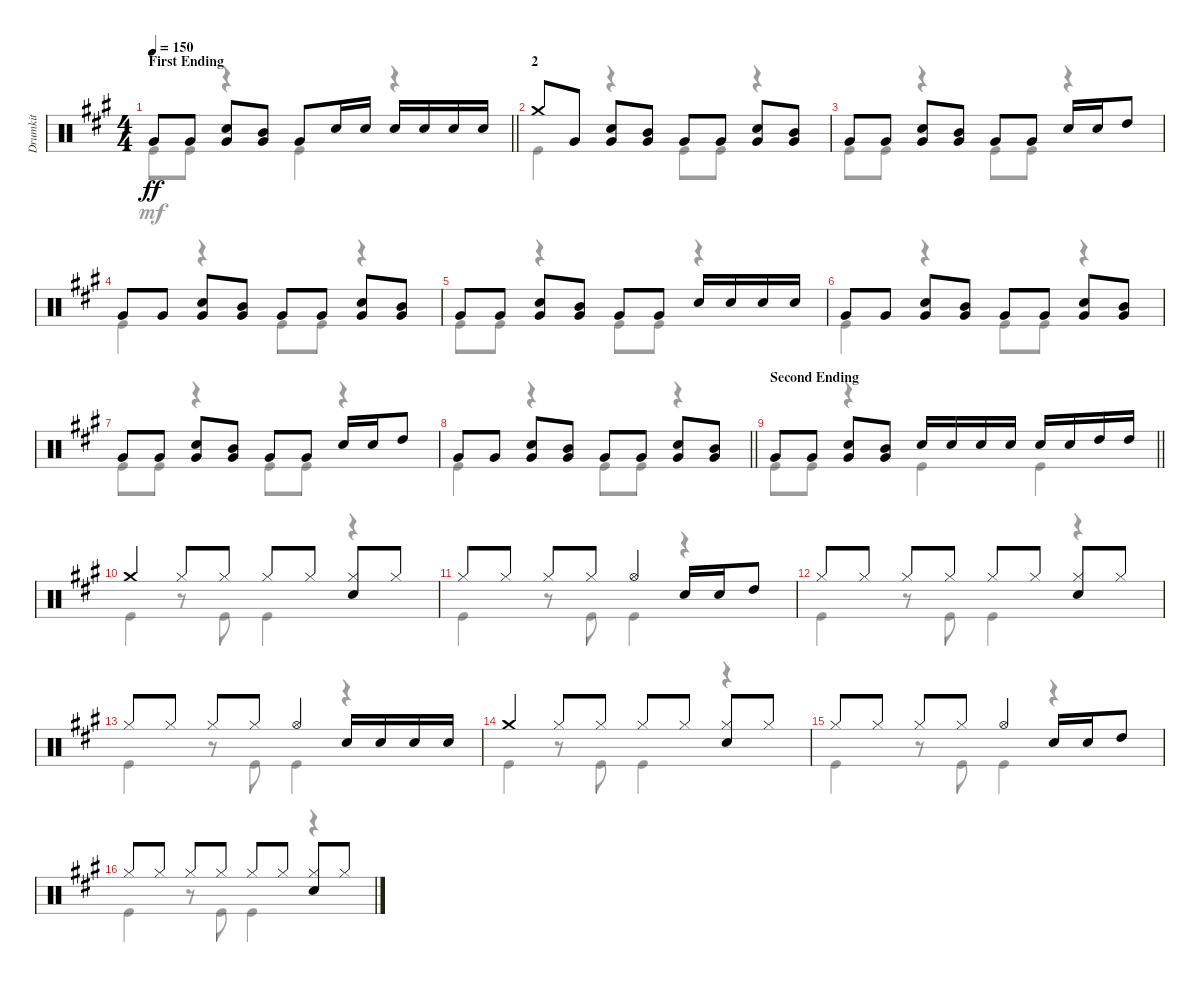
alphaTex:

\track ("Drumkit" "Drumkit") {instrument percussion}
\staff {score}
\articulation defaults
\voice
\ts (4 4)
\section ("" "First Ending")
\tempo 150
\clef neutral
\barLineRight lightlight
\ks a "Very Low Tom (hit)".8{dy ff} "Very Low Tom (hit)".8
("Very Low Tom (hit)" "Snare (hit) 2").8 ("Very Low Tom (hit)" "Mid Tom (hit)").8 "Very Low Tom (hit)".8 "Snare (hit) 2".16 "Snare (hit) 2".16 "Snare (hit) 2".16 "Snare (hit) 2".16 "Snare (hit) 2".16 "Snare (hit) 2".16 |
\section ("" "2")
"Crash medium (hit)".8 "Very Low Tom (hit)".8 ("Very Low Tom (hit)" "Snare (hit) 2").8 ("Very Low Tom (hit)" "Mid Tom (hit)").8 "Very Low Tom (hit)".8 "Very Low Tom (hit)".8 ("Very Low Tom (hit)" "Snare (hit) 2").8 ("Very Low Tom (hit)" "Mid Tom (hit)").8 |
"Very Low Tom (hit)".8 "Very Low Tom (hit)".8 ("Very Low Tom (hit)" "Snare (hit) 2").8 ("Very Low Tom (hit)" "Mid Tom (hit)").8 "Very Low Tom (hit)".8 "Very Low Tom (hit)".8 "Snare (hit) 2".16 "Snare (hit) 2".16 "High Tom (hit)".8 |
"Very Low Tom (hit)".8 "Very Low Tom (hit)".8 ("Very Low Tom (hit)" "Snare (hit) 2").8 ("Very Low Tom (hit)" "Mid Tom (hit)").8 "Very Low Tom (hit)".8 "Very Low Tom (hit)".8 ("Very Low Tom (hit)" "Snare (hit) 2").8 ("Very Low Tom (hit)" "Mid Tom (hit)").8 |
"Very Low Tom (hit)".8 "Very Low Tom (hit)".8 ("Very Low Tom (hit)" "Snare (hit) 2").8 ("Very Low Tom (hit)" "Mid Tom (hit)").8 "Very Low Tom (hit)".8 "Very Low Tom (hit)".8 "Snare (hit) 2".16 "Snare (hit) 2".16 "Snare (hit) 2".16 "Snare (hit) 2".16 |
"Very Low Tom (hit)".8 "Very Low Tom (hit)".8 ("Very Low Tom (hit)" "Snare (hit) 2").8 ("Very Low Tom (hit)" "Mid Tom (hit)").8 "Very Low Tom (hit)".8 "Very Low Tom (hit)".8 ("Very Low Tom (hit)" "Snare (hit) 2").8 ("Very Low Tom (hit)" "Mid Tom (hit)").8 |
"Very Low Tom (hit)".8 "Very Low Tom (hit)".8 ("Very Low Tom (hit)" "Snare (hit) 2").8 ("Very Low Tom (hit)" "Mid Tom (hit)").8 "Very Low Tom (hit)".8 "Very Low Tom (hit)".8 "Snare (hit) 2".16 "Snare (hit) 2".16 "High Tom (hit)".8 |
\barLineRight lightlight "Very Low Tom (hit)".8 "Very Low Tom (hit)".8
("Very Low Tom (hit)" "Snare (hit) 2").8 ("Very Low Tom (hit)" "Mid Tom (hit)").8 "Very Low Tom (hit)".8 "Very Low Tom (hit)".8 ("Very Low Tom (hit)" "Snare (hit) 2").8 ("Very Low Tom (hit)" "Mid Tom (hit)").8 |
\section ("" "Second Ending")
\barLineRight lightlight "Very Low Tom (hit)".8 "Very Low Tom (hit)".8
("Very Low Tom (hit)" "Snare (hit) 2").8 ("Very Low Tom (hit)" "Mid Tom (hit)").8 "Snare (hit) 2".16 "Snare (hit) 2".16 "Snare (hit) 2".16 "Snare (hit) 2".16 "Snare (hit) 2".16 "Snare (hit) 2".16 "High Tom (hit)".16 "High Tom (hit)".16 |
\section ("" "")
"Crash medium (hit)".4 "Hi-Hat (closed)".8 "Hi-Hat (closed)".8 "Hi-Hat (closed)".8 "Hi-Hat (closed)".8 ("Hi-Hat (closed)" "Snare (hit) 2").8 "Hi-Hat (closed)".8 |
"Hi-Hat (closed)".8 "Hi-Hat (closed)".8 "Hi-Hat (closed)".8 "Hi-Hat (closed)".8 "Hi-Hat (open)".4 "Snare (hit) 2".16 "Snare (hit) 2".16 "High Tom (hit)".8 |
"Hi-Hat (closed)".8 "Hi-Hat (closed)".8 "Hi-Hat (closed)".8 "Hi-Hat (closed)".8 "Hi-Hat (closed)".8 "Hi-Hat (closed)".8 ("Hi-Hat (closed)" "Snare (hit) 2").8 "Hi-Hat (closed)".8 |
"Hi-Hat (closed)".8 "Hi-Hat (closed)".8 "Hi-Hat (closed)".8 "Hi-Hat (closed)".8 "Hi-Hat (open)".4 "Snare (hit) 2".16 "Snare (hit) 2".16 "Snare (hit) 2".16 "Snare (hit) 2".16 |
"Crash medium (hit)".4 "Hi-Hat (closed)".8 "Hi-Hat (closed)".8 "Hi-Hat (closed)".8 "Hi-Hat (closed)".8 ("Hi-Hat (closed)" "Snare (hit) 2").8 "Hi-Hat (closed)".8 |
"Hi-Hat (closed)".8 "Hi-Hat (closed)".8 "Hi-Hat (closed)".8 "Hi-Hat (closed)".8 "Hi-Hat (open)".4 "Snare (hit) 2".16 "Snare (hit) 2".16 "High Tom (hit)".8 |
"Hi-Hat (closed)".8 "Hi-Hat (closed)".8 "Hi-Hat (closed)".8 "Hi-Hat (closed)".8 "Hi-Hat (closed)".8 "Hi-Hat (closed)".8 ("Hi-Hat (closed)" "Snare (hit) 2").8 "Hi-Hat (closed)".8
\voice
\clef neutral
\ottava regular
\simile none
\barLineRight lightlight
\ks a "Kick (hit)".8{dy mf} "Kick (hit)".8
r.4 "Kick (hit)".4 r.4 |
"Kick (hit)".4 r.4 "Kick (hit)".8 "Kick (hit)".8 r.4 |
"Kick (hit)".8 "Kick (hit)".8 r.4 "Kick (hit)".8 "Kick (hit)".8 r.4 |
"Kick (hit)".4 r.4 "Kick (hit)".8 "Kick (hit)".8 r.4 |
"Kick (hit)".8 "Kick (hit)".8 r.4 "Kick (hit)".8 "Kick (hit)".8 r.4 |
"Kick (hit)".4 r.4 "Kick (hit)".8 "Kick (hit)".8 r.4 |
"Kick (hit)".8 "Kick (hit)".8 r.4 "Kick (hit)".8 "Kick (hit)".8 r.4 |
\barLineRight lightlight "Kick (hit)".4
r.4 "Kick (hit)".8 "Kick (hit)".8 r.4 |
\barLineRight lightlight "Kick (hit)".8 "Kick (hit)".8
r.4 "Kick (hit)".4 "Kick (hit)".4 |
"Kick (hit)".4 r.8 "Kick (hit)".8 "Kick (hit)".4 r.4 |
"Kick (hit)".4 r.8 "Kick (hit)".8 "Kick (hit)".4 r.4 |
"Kick (hit)".4 r.8 "Kick (hit)".8 "Kick (hit)".4 r.4 |
"Kick (hit)".4 r.8 "Kick (hit)".8 "Kick (hit)".4 r.4 |
"Kick (hit)".4 r.8 "Kick (hit)".8 "Kick (hit)".4 r.4 |
"Kick (hit)".4 r.8 "Kick (hit)".8 "Kick (hit)".4 r.4 |
"Kick (hit)".4 r.8 "Kick (hit)".8 "Kick (hit)".4 r.4
